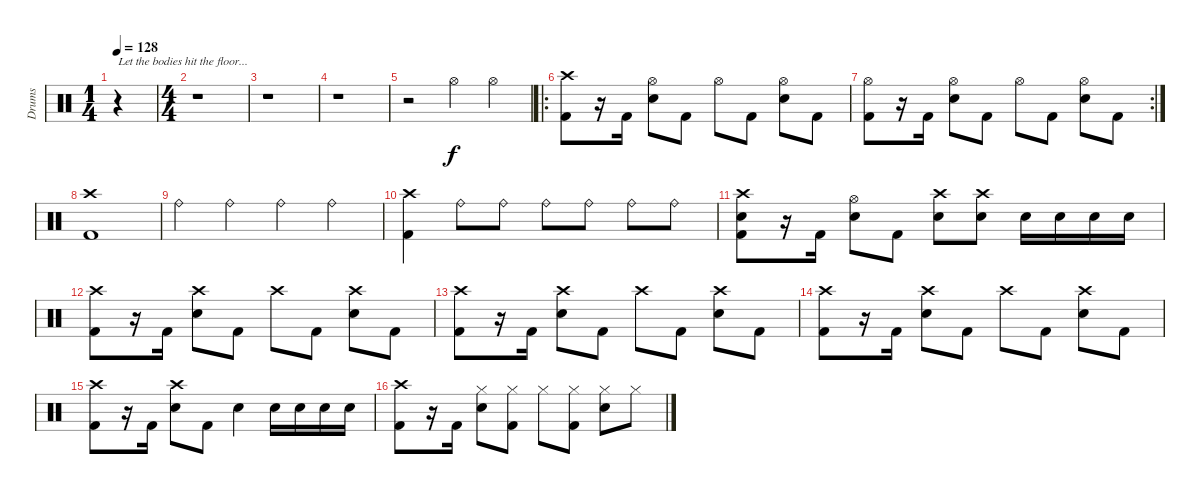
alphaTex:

\track ("Drums" "Drums") {instrument percussion}
\staff {score}
\articulation defaults
\ts (1 4)
\tempo 128
\clef neutral
\ks c
r.4{txt "Let the bodies hit the floor..." dy f} |
\ts (4 4)
r.1 |
r.1 |
r.1 |
r.2 "Hi-Hat (open)".4 "Hi-Hat (open)".4 |
\ro
("Crash high (hit)" "Kick (hit) 2").8 r.16 "Kick (hit) 2".16 ("Hi-Hat (open)" "Electric Snare (hit)").8 "Kick (hit) 2".8 "Hi-Hat (open)".8 "Kick (hit) 2".8 ("Hi-Hat (open)" "Electric Snare (hit)").8 "Kick (hit) 2".8 |
\rc 2
("Hi-Hat (open)" "Kick (hit) 2").8 r.16 "Kick (hit) 2".16 ("Hi-Hat (open)" "Electric Snare (hit)").8 "Kick (hit) 2".8 "Hi-Hat (open)".8 "Kick (hit) 2".8 ("Hi-Hat (open)" "Electric Snare (hit)").8 "Kick (hit) 2".8 |
("Crash high (hit)" "Kick (hit) 2").1 |
"Ride (bell)".4 "Ride (bell)".4 "Ride (bell)".4 "Ride (bell)".4 |
("Crash high (hit)" "Kick (hit) 2").4 "Ride (bell)".8 "Ride (bell)".8 "Ride (bell)".8 "Ride (bell)".8 "Ride (bell)".8 "Ride (bell)".8 |
("Crash high (hit)" "Electric Snare (hit)" "Kick (hit) 2").8 r.16 "Kick (hit) 2".16 ("Hi-Hat (open)" "Electric Snare (hit)").8 "Kick (hit) 2".8 ("Crash high (hit)" "Electric Snare (hit)").8 ("Crash high (hit)" "Electric Snare (hit)").8 "Electric Snare (hit)".16 "Electric Snare (hit)".16 "Electric Snare (hit)".16 "Electric Snare (hit)".16 |
("Crash high (hit)" "Kick (hit) 2").8 r.16 "Kick (hit) 2".16 ("Crash high (hit)" "Electric Snare (hit)").8 "Kick (hit) 2".8 "Crash high (hit)".8 "Kick (hit) 2".8 ("Crash high (hit)" "Electric Snare (hit)").8 "Kick (hit) 2".8 |
("Crash high (hit)" "Kick (hit) 2").8 r.16 "Kick (hit) 2".16 ("Crash high (hit)" "Electric Snare (hit)").8 "Kick (hit) 2".8 "Crash high (hit)".8 "Kick (hit) 2".8 ("Crash high (hit)" "Electric Snare (hit)").8 "Kick (hit) 2".8 |
("Crash high (hit)" "Kick (hit) 2").8 r.16 "Kick (hit) 2".16 ("Crash high (hit)" "Electric Snare (hit)").8 "Kick (hit) 2".8 "Crash high (hit)".8 "Kick (hit) 2".8 ("Crash high (hit)" "Electric Snare (hit)").8 "Kick (hit) 2".8 |
("Crash high (hit)" "Kick (hit) 2").8 r.16 "Kick (hit) 2".16 ("Crash high (hit)" "Electric Snare (hit)").8 "Kick (hit) 2".8 "Electric Snare (hit)".4 "Electric Snare (hit)".16 "Electric Snare (hit)".16 "Electric Snare (hit)".16 "Electric Snare (hit)".16 |
("Crash high (hit)" "Kick (hit) 2").8 r.16 "Kick (hit) 2".16 ("Hi-Hat (closed)" "Electric Snare (hit)").8 ("Hi-Hat (closed)" "Kick (hit) 2").8 "Hi-Hat (closed)".8 ("Hi-Hat (closed)" "Kick (hit) 2").8 ("Hi-Hat (closed)" "Electric Snare (hit)").8 "Hi-Hat (closed)".8
